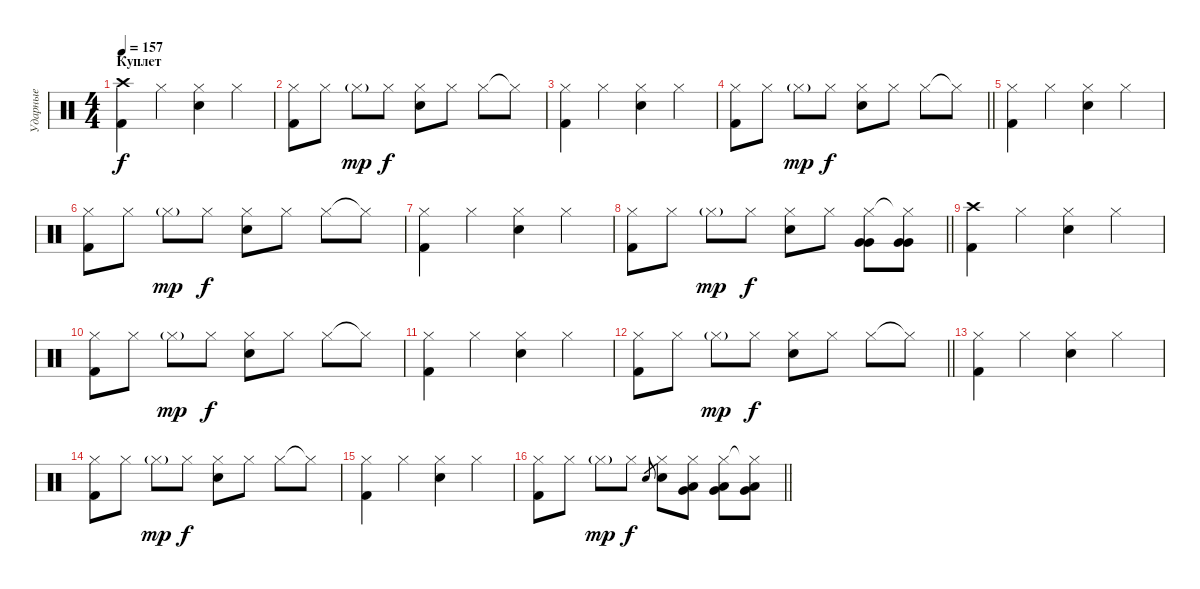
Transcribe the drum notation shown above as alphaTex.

\track ("Ударные" "Ударные") {instrument percussion}
\staff {score}
\articulation defaults
\ts (4 4)
\section ("" "Куплет")
\tempo 157
\clef neutral
\ks c
("Crash high (hit)" "Kick (hit) 2").4{dy f} "Hi-Hat (closed)".4 ("Hi-Hat (closed)" "Snare (hit) 2").4 "Hi-Hat (closed)".4 |
("Hi-Hat (closed)" "Kick (hit) 2").8 "Hi-Hat (closed)".8 "Hi-Hat (closed)"{g}.8{dy mp} "Hi-Hat (closed)".8{dy f} ("Hi-Hat (closed)" "Snare (hit) 2").8 "Hi-Hat (closed)".8 "Hi-Hat (closed)".8 "Hi-Hat (closed)"{t}.8 |
("Hi-Hat (closed)" "Kick (hit) 2").4 "Hi-Hat (closed)".4 ("Hi-Hat (closed)" "Snare (hit) 2").4 "Hi-Hat (closed)".4 |
\barLineRight lightlight
("Hi-Hat (closed)" "Kick (hit) 2").8 "Hi-Hat (closed)".8 "Hi-Hat (closed)"{g}.8{dy mp} "Hi-Hat (closed)".8{dy f} ("Hi-Hat (closed)" "Snare (hit) 2").8 "Hi-Hat (closed)".8 "Hi-Hat (closed)".8 "Hi-Hat (closed)"{t}.8 |
("Hi-Hat (closed)" "Kick (hit) 2").4 "Hi-Hat (closed)".4 ("Hi-Hat (closed)" "Snare (hit) 2").4 "Hi-Hat (closed)".4 |
("Hi-Hat (closed)" "Kick (hit) 2").8 "Hi-Hat (closed)".8 "Hi-Hat (closed)"{g}.8{dy mp} "Hi-Hat (closed)".8{dy f} ("Hi-Hat (closed)" "Snare (hit) 2").8 "Hi-Hat (closed)".8 "Hi-Hat (closed)".8 "Hi-Hat (closed)"{t}.8 |
("Hi-Hat (closed)" "Kick (hit) 2").4 "Hi-Hat (closed)".4 ("Hi-Hat (closed)" "Snare (hit) 2").4 "Hi-Hat (closed)".4 |
\barLineRight lightlight
("Hi-Hat (closed)" "Kick (hit) 2").8 "Hi-Hat (closed)".8 "Hi-Hat (closed)"{g}.8{dy mp} "Hi-Hat (closed)".8{dy f} ("Hi-Hat (closed)" "Snare (hit) 2").8 "Hi-Hat (closed)".8 ("Hi-Hat (closed)" "Very Low Tom (hit)" "Very Low Tom (hit)").8 ("Hi-Hat (closed)"{t} "Very Low Tom (hit)" "Very Low Tom (hit)").8 |
("Crash high (hit)" "Kick (hit) 2").4 "Hi-Hat (closed)".4 ("Hi-Hat (closed)" "Snare (hit) 2").4 "Hi-Hat (closed)".4 |
("Hi-Hat (closed)" "Kick (hit) 2").8 "Hi-Hat (closed)".8 "Hi-Hat (closed)"{g}.8{dy mp} "Hi-Hat (closed)".8{dy f} ("Hi-Hat (closed)" "Snare (hit) 2").8 "Hi-Hat (closed)".8 "Hi-Hat (closed)".8 "Hi-Hat (closed)"{t}.8 |
("Hi-Hat (closed)" "Kick (hit) 2").4 "Hi-Hat (closed)".4 ("Hi-Hat (closed)" "Snare (hit) 2").4 "Hi-Hat (closed)".4 |
\barLineRight lightlight
("Hi-Hat (closed)" "Kick (hit) 2").8 "Hi-Hat (closed)".8 "Hi-Hat (closed)"{g}.8{dy mp} "Hi-Hat (closed)".8{dy f} ("Hi-Hat (closed)" "Snare (hit) 2").8 "Hi-Hat (closed)".8 "Hi-Hat (closed)".8 "Hi-Hat (closed)"{t}.8 |
("Hi-Hat (closed)" "Kick (hit) 2").4 "Hi-Hat (closed)".4 ("Hi-Hat (closed)" "Snare (hit) 2").4 "Hi-Hat (closed)".4 |
("Hi-Hat (closed)" "Kick (hit) 2").8 "Hi-Hat (closed)".8 "Hi-Hat (closed)"{g}.8{dy mp} "Hi-Hat (closed)".8{dy f} ("Hi-Hat (closed)" "Snare (hit) 2").8 "Hi-Hat (closed)".8 "Hi-Hat (closed)".8 "Hi-Hat (closed)"{t}.8 |
("Hi-Hat (closed)" "Kick (hit) 2").4 "Hi-Hat (closed)".4 ("Hi-Hat (closed)" "Snare (hit) 2").4 "Hi-Hat (closed)".4 |
\barLineRight lightlight
("Hi-Hat (closed)" "Kick (hit) 2").8 "Hi-Hat (closed)".8 "Hi-Hat (closed)"{g}.8{dy mp} "Hi-Hat (closed)".8{dy f} "Snare (hit) 2".8{gr} ("Hi-Hat (closed)" "Snare (hit) 2").8 ("Hi-Hat (closed)" "Very Low Tom (hit)" "Low Tom (hit)").8 ("Hi-Hat (closed)" "Very Low Tom (hit)" "Low Tom (hit)").8 ("Hi-Hat (closed)"{t} "Very Low Tom (hit)" "Low Tom (hit)").8
